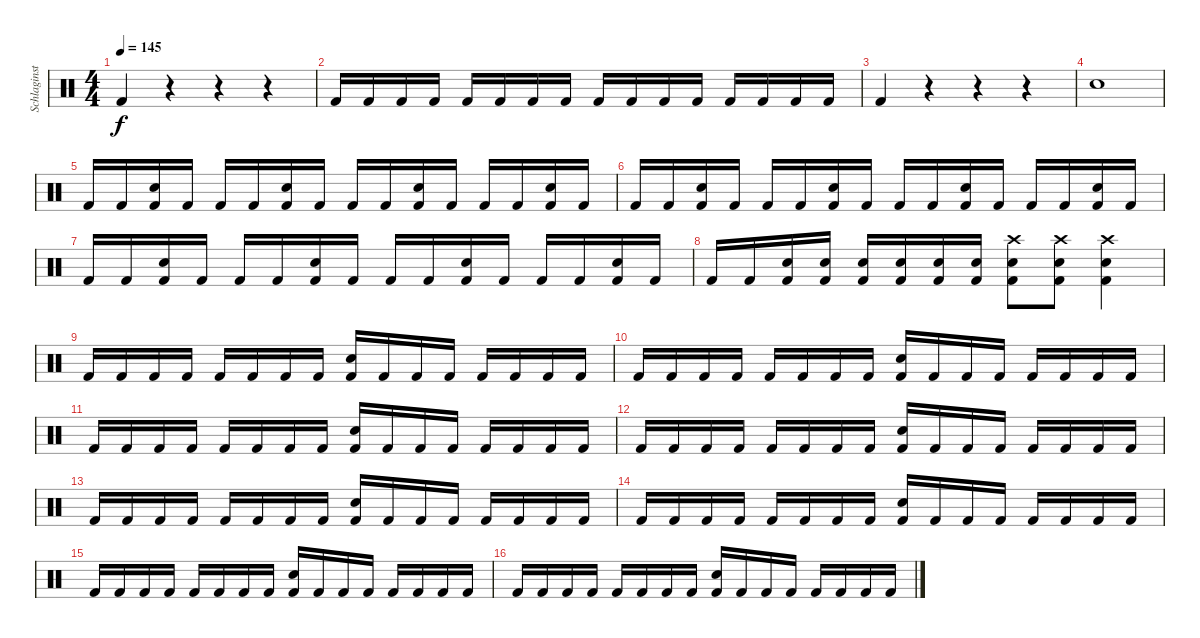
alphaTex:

\track ("Schlaginstrumente - Auswahl" "Schlaginst") {instrument percussion}
\staff {score}
\articulation defaults
\ts (4 4)
\tempo 145
\clef neutral
\ks c "Kick (hit) 2".4{dy f}
r.4 r.4 r.4 |
"Kick (hit) 2".16 "Kick (hit) 2".16 "Kick (hit) 2".16 "Kick (hit) 2".16 "Kick (hit) 2".16 "Kick (hit) 2".16 "Kick (hit) 2".16 "Kick (hit) 2".16 "Kick (hit) 2".16 "Kick (hit) 2".16 "Kick (hit) 2".16 "Kick (hit) 2".16 "Kick (hit) 2".16 "Kick (hit) 2".16 "Kick (hit) 2".16 "Kick (hit) 2".16 |
"Kick (hit) 2".4 r.4 r.4 r.4 |
"Snare (hit) 2".1 |
"Kick (hit) 2".16 "Kick (hit) 2".16 ("Snare (hit) 2" "Kick (hit) 2").16 "Kick (hit) 2".16 "Kick (hit) 2".16 "Kick (hit) 2".16 ("Snare (hit) 2" "Kick (hit) 2").16 "Kick (hit) 2".16 "Kick (hit) 2".16 "Kick (hit) 2".16 ("Snare (hit) 2" "Kick (hit) 2").16 "Kick (hit) 2".16 "Kick (hit) 2".16 "Kick (hit) 2".16 ("Snare (hit) 2" "Kick (hit) 2").16 "Kick (hit) 2".16 |
"Kick (hit) 2".16 "Kick (hit) 2".16 ("Snare (hit) 2" "Kick (hit) 2").16 "Kick (hit) 2".16 "Kick (hit) 2".16 "Kick (hit) 2".16 ("Snare (hit) 2" "Kick (hit) 2").16 "Kick (hit) 2".16 "Kick (hit) 2".16 "Kick (hit) 2".16 ("Snare (hit) 2" "Kick (hit) 2").16 "Kick (hit) 2".16 "Kick (hit) 2".16 "Kick (hit) 2".16 ("Snare (hit) 2" "Kick (hit) 2").16 "Kick (hit) 2".16 |
"Kick (hit) 2".16 "Kick (hit) 2".16 ("Snare (hit) 2" "Kick (hit) 2").16 "Kick (hit) 2".16 "Kick (hit) 2".16 "Kick (hit) 2".16 ("Snare (hit) 2" "Kick (hit) 2").16 "Kick (hit) 2".16 "Kick (hit) 2".16 "Kick (hit) 2".16 ("Snare (hit) 2" "Kick (hit) 2").16 "Kick (hit) 2".16 "Kick (hit) 2".16 "Kick (hit) 2".16 ("Snare (hit) 2" "Kick (hit) 2").16 "Kick (hit) 2".16 |
"Kick (hit) 2".16 "Kick (hit) 2".16 ("Snare (hit) 2" "Kick (hit) 2").16 ("Snare (hit) 2" "Kick (hit) 2").16 ("Snare (hit) 2" "Kick (hit) 2").16 ("Snare (hit) 2" "Kick (hit) 2").16 ("Snare (hit) 2" "Kick (hit) 2").16 ("Snare (hit) 2" "Kick (hit) 2").16 ("Crash high (hit)" "Snare (hit) 2" "Kick (hit) 2").8 ("Crash high (hit)" "Snare (hit) 2" "Kick (hit) 2").8 ("Crash high (hit)" "Snare (hit) 2" "Kick (hit) 2").4 |
"Kick (hit) 2".16 "Kick (hit) 2".16 "Kick (hit) 2".16 "Kick (hit) 2".16 "Kick (hit) 2".16 "Kick (hit) 2".16 "Kick (hit) 2".16 "Kick (hit) 2".16 ("Snare (hit) 2" "Kick (hit) 2").16 "Kick (hit) 2".16 "Kick (hit) 2".16 "Kick (hit) 2".16 "Kick (hit) 2".16 "Kick (hit) 2".16 "Kick (hit) 2".16 "Kick (hit) 2".16 |
"Kick (hit) 2".16 "Kick (hit) 2".16 "Kick (hit) 2".16 "Kick (hit) 2".16 "Kick (hit) 2".16 "Kick (hit) 2".16 "Kick (hit) 2".16 "Kick (hit) 2".16 ("Snare (hit) 2" "Kick (hit) 2").16 "Kick (hit) 2".16 "Kick (hit) 2".16 "Kick (hit) 2".16 "Kick (hit) 2".16 "Kick (hit) 2".16 "Kick (hit) 2".16 "Kick (hit) 2".16 |
"Kick (hit) 2".16 "Kick (hit) 2".16 "Kick (hit) 2".16 "Kick (hit) 2".16 "Kick (hit) 2".16 "Kick (hit) 2".16 "Kick (hit) 2".16 "Kick (hit) 2".16 ("Snare (hit) 2" "Kick (hit) 2").16 "Kick (hit) 2".16 "Kick (hit) 2".16 "Kick (hit) 2".16 "Kick (hit) 2".16 "Kick (hit) 2".16 "Kick (hit) 2".16 "Kick (hit) 2".16 |
"Kick (hit) 2".16 "Kick (hit) 2".16 "Kick (hit) 2".16 "Kick (hit) 2".16 "Kick (hit) 2".16 "Kick (hit) 2".16 "Kick (hit) 2".16 "Kick (hit) 2".16 ("Snare (hit) 2" "Kick (hit) 2").16 "Kick (hit) 2".16 "Kick (hit) 2".16 "Kick (hit) 2".16 "Kick (hit) 2".16 "Kick (hit) 2".16 "Kick (hit) 2".16 "Kick (hit) 2".16 |
"Kick (hit) 2".16 "Kick (hit) 2".16 "Kick (hit) 2".16 "Kick (hit) 2".16 "Kick (hit) 2".16 "Kick (hit) 2".16 "Kick (hit) 2".16 "Kick (hit) 2".16 ("Snare (hit) 2" "Kick (hit) 2").16 "Kick (hit) 2".16 "Kick (hit) 2".16 "Kick (hit) 2".16 "Kick (hit) 2".16 "Kick (hit) 2".16 "Kick (hit) 2".16 "Kick (hit) 2".16 |
"Kick (hit) 2".16 "Kick (hit) 2".16 "Kick (hit) 2".16 "Kick (hit) 2".16 "Kick (hit) 2".16 "Kick (hit) 2".16 "Kick (hit) 2".16 "Kick (hit) 2".16 ("Snare (hit) 2" "Kick (hit) 2").16 "Kick (hit) 2".16 "Kick (hit) 2".16 "Kick (hit) 2".16 "Kick (hit) 2".16 "Kick (hit) 2".16 "Kick (hit) 2".16 "Kick (hit) 2".16 |
"Kick (hit) 2".16 "Kick (hit) 2".16 "Kick (hit) 2".16 "Kick (hit) 2".16 "Kick (hit) 2".16 "Kick (hit) 2".16 "Kick (hit) 2".16 "Kick (hit) 2".16 ("Snare (hit) 2" "Kick (hit) 2").16 "Kick (hit) 2".16 "Kick (hit) 2".16 "Kick (hit) 2".16 "Kick (hit) 2".16 "Kick (hit) 2".16 "Kick (hit) 2".16 "Kick (hit) 2".16 |
"Kick (hit) 2".16 "Kick (hit) 2".16 "Kick (hit) 2".16 "Kick (hit) 2".16 "Kick (hit) 2".16 "Kick (hit) 2".16 "Kick (hit) 2".16 "Kick (hit) 2".16 ("Snare (hit) 2" "Kick (hit) 2").16 "Kick (hit) 2".16 "Kick (hit) 2".16 "Kick (hit) 2".16 "Kick (hit) 2".16 "Kick (hit) 2".16 "Kick (hit) 2".16 "Kick (hit) 2".16
